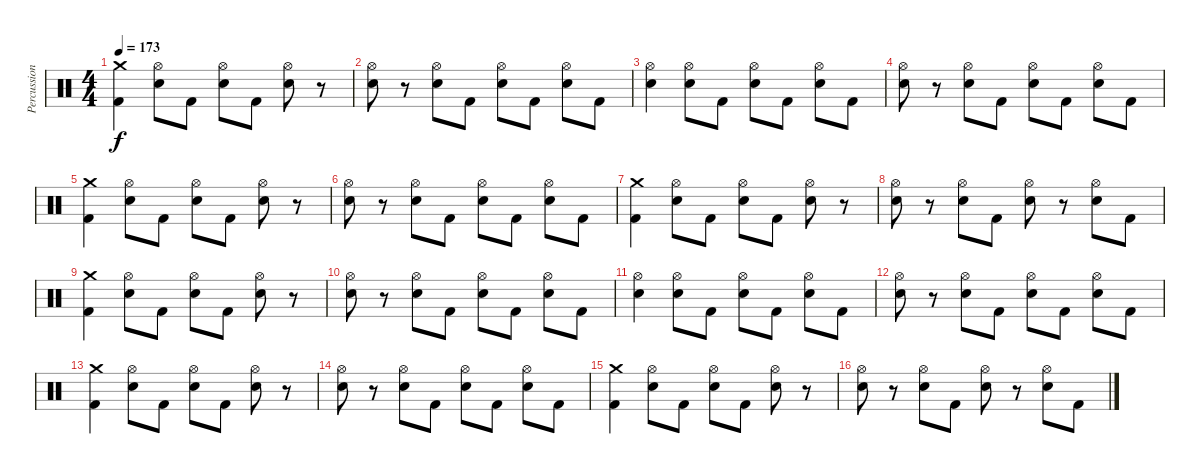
\track ("Percussion" "Percussion") {instrument percussion}
\staff {score}
\articulation defaults
\ts (4 4)
\tempo 173
\clef neutral
\ks c
("Crash medium (hit)" "Kick (hit) 2").4{dy f} ("Hi-Hat (open)" "Electric Snare (hit)").8 "Kick (hit) 2".8 ("Hi-Hat (open)" "Electric Snare (hit)").8 "Kick (hit) 2".8 ("Hi-Hat (open)" "Electric Snare (hit)").8 r.8 |
("Hi-Hat (open)" "Electric Snare (hit)").8 r.8 ("Hi-Hat (open)" "Electric Snare (hit)").8 "Kick (hit) 2".8 ("Hi-Hat (open)" "Electric Snare (hit)").8 "Kick (hit) 2".8 ("Hi-Hat (open)" "Electric Snare (hit)").8 "Kick (hit) 2".8 |
("Hi-Hat (open)" "Electric Snare (hit)").4 ("Hi-Hat (open)" "Electric Snare (hit)").8 "Kick (hit) 2".8 ("Hi-Hat (open)" "Electric Snare (hit)").8 "Kick (hit) 2".8 ("Hi-Hat (open)" "Electric Snare (hit)").8 "Kick (hit) 2".8 |
("Hi-Hat (open)" "Electric Snare (hit)").8 r.8 ("Hi-Hat (open)" "Electric Snare (hit)").8 "Kick (hit) 2".8 ("Hi-Hat (open)" "Electric Snare (hit)").8 "Kick (hit) 2".8 ("Hi-Hat (open)" "Electric Snare (hit)").8 "Kick (hit) 2".8 |
("Crash medium (hit)" "Kick (hit) 2").4 ("Hi-Hat (open)" "Electric Snare (hit)").8 "Kick (hit) 2".8 ("Hi-Hat (open)" "Electric Snare (hit)").8 "Kick (hit) 2".8 ("Hi-Hat (open)" "Electric Snare (hit)").8 r.8 |
("Hi-Hat (open)" "Electric Snare (hit)").8 r.8 ("Hi-Hat (open)" "Electric Snare (hit)").8 "Kick (hit) 2".8 ("Hi-Hat (open)" "Electric Snare (hit)").8 "Kick (hit) 2".8 ("Hi-Hat (open)" "Electric Snare (hit)").8 "Kick (hit) 2".8 |
("Crash medium (hit)" "Kick (hit) 2").4 ("Hi-Hat (open)" "Electric Snare (hit)").8 "Kick (hit) 2".8 ("Hi-Hat (open)" "Electric Snare (hit)").8 "Kick (hit) 2".8 ("Hi-Hat (open)" "Electric Snare (hit)").8 r.8 |
("Hi-Hat (open)" "Electric Snare (hit)").8 r.8 ("Hi-Hat (open)" "Electric Snare (hit)").8 "Kick (hit) 2".8 ("Hi-Hat (open)" "Electric Snare (hit)").8 r.8 ("Hi-Hat (open)" "Electric Snare (hit)").8 "Kick (hit) 2".8 |
("Crash medium (hit)" "Kick (hit) 2").4 ("Hi-Hat (open)" "Electric Snare (hit)").8 "Kick (hit) 2".8 ("Hi-Hat (open)" "Electric Snare (hit)").8 "Kick (hit) 2".8 ("Hi-Hat (open)" "Electric Snare (hit)").8 r.8 |
("Hi-Hat (open)" "Electric Snare (hit)").8 r.8 ("Hi-Hat (open)" "Electric Snare (hit)").8 "Kick (hit) 2".8 ("Hi-Hat (open)" "Electric Snare (hit)").8 "Kick (hit) 2".8 ("Hi-Hat (open)" "Electric Snare (hit)").8 "Kick (hit) 2".8 |
("Hi-Hat (open)" "Electric Snare (hit)").4 ("Hi-Hat (open)" "Electric Snare (hit)").8 "Kick (hit) 2".8 ("Hi-Hat (open)" "Electric Snare (hit)").8 "Kick (hit) 2".8 ("Hi-Hat (open)" "Electric Snare (hit)").8 "Kick (hit) 2".8 |
("Hi-Hat (open)" "Electric Snare (hit)").8 r.8 ("Hi-Hat (open)" "Electric Snare (hit)").8 "Kick (hit) 2".8 ("Hi-Hat (open)" "Electric Snare (hit)").8 "Kick (hit) 2".8 ("Hi-Hat (open)" "Electric Snare (hit)").8 "Kick (hit) 2".8 |
("Crash medium (hit)" "Kick (hit) 2").4 ("Hi-Hat (open)" "Electric Snare (hit)").8 "Kick (hit) 2".8 ("Hi-Hat (open)" "Electric Snare (hit)").8 "Kick (hit) 2".8 ("Hi-Hat (open)" "Electric Snare (hit)").8 r.8 |
("Hi-Hat (open)" "Electric Snare (hit)").8 r.8 ("Hi-Hat (open)" "Electric Snare (hit)").8 "Kick (hit) 2".8 ("Hi-Hat (open)" "Electric Snare (hit)").8 "Kick (hit) 2".8 ("Hi-Hat (open)" "Electric Snare (hit)").8 "Kick (hit) 2".8 |
("Crash medium (hit)" "Kick (hit) 2").4 ("Hi-Hat (open)" "Electric Snare (hit)").8 "Kick (hit) 2".8 ("Hi-Hat (open)" "Electric Snare (hit)").8 "Kick (hit) 2".8 ("Hi-Hat (open)" "Electric Snare (hit)").8 r.8 |
("Hi-Hat (open)" "Electric Snare (hit)").8 r.8 ("Hi-Hat (open)" "Electric Snare (hit)").8 "Kick (hit) 2".8 ("Hi-Hat (open)" "Electric Snare (hit)").8 r.8 ("Hi-Hat (open)" "Electric Snare (hit)").8 "Kick (hit) 2".8
